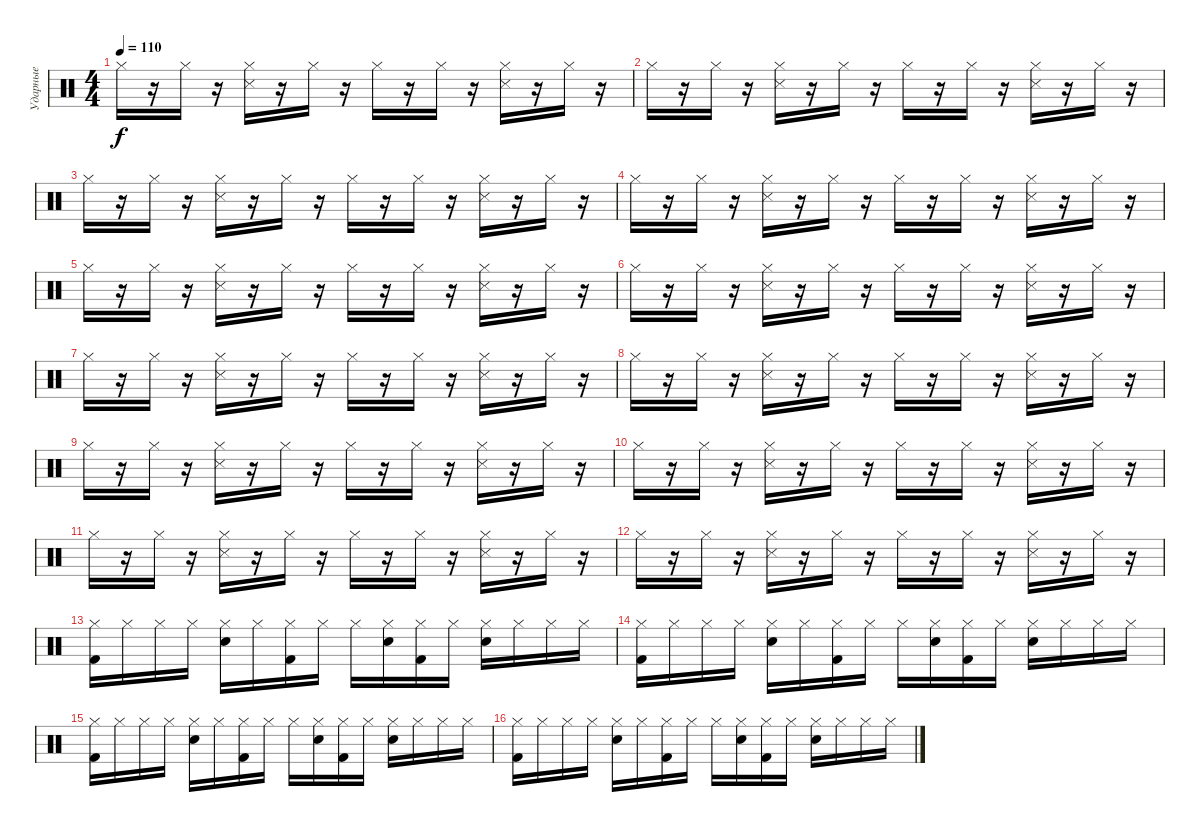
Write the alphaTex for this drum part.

\track ("Ударные" "Ударные") {instrument percussion}
\staff {score}
\articulation defaults
\ts (4 4)
\tempo 110
\clef neutral
\ks c "Hi-Hat (closed)".16{dy f}
r.16 "Hi-Hat (closed)".16 r.16 ("Hi-Hat (closed)" "Snare (side stick) 3").16 r.16 "Hi-Hat (closed)".16 r.16 "Hi-Hat (closed)".16 r.16 "Hi-Hat (closed)".16 r.16 ("Hi-Hat (closed)" "Snare (side stick) 3").16 r.16 "Hi-Hat (closed)".16 r.16 |
"Hi-Hat (closed)".16 r.16 "Hi-Hat (closed)".16 r.16 ("Hi-Hat (closed)" "Snare (side stick) 3").16 r.16 "Hi-Hat (closed)".16 r.16 "Hi-Hat (closed)".16 r.16 "Hi-Hat (closed)".16 r.16 ("Hi-Hat (closed)" "Snare (side stick) 3").16 r.16 "Hi-Hat (closed)".16 r.16 |
"Hi-Hat (closed)".16 r.16 "Hi-Hat (closed)".16 r.16 ("Hi-Hat (closed)" "Snare (side stick) 3").16 r.16 "Hi-Hat (closed)".16 r.16 "Hi-Hat (closed)".16 r.16 "Hi-Hat (closed)".16 r.16 ("Hi-Hat (closed)" "Snare (side stick) 3").16 r.16 "Hi-Hat (closed)".16 r.16 |
"Hi-Hat (closed)".16 r.16 "Hi-Hat (closed)".16 r.16 ("Hi-Hat (closed)" "Snare (side stick) 3").16 r.16 "Hi-Hat (closed)".16 r.16 "Hi-Hat (closed)".16 r.16 "Hi-Hat (closed)".16 r.16 ("Hi-Hat (closed)" "Snare (side stick) 3").16 r.16 "Hi-Hat (closed)".16 r.16 |
"Hi-Hat (closed)".16 r.16 "Hi-Hat (closed)".16 r.16 ("Hi-Hat (closed)" "Snare (side stick) 3").16 r.16 "Hi-Hat (closed)".16 r.16 "Hi-Hat (closed)".16 r.16 "Hi-Hat (closed)".16 r.16 ("Hi-Hat (closed)" "Snare (side stick) 3").16 r.16 "Hi-Hat (closed)".16 r.16 |
"Hi-Hat (closed)".16 r.16 "Hi-Hat (closed)".16 r.16 ("Hi-Hat (closed)" "Snare (side stick) 3").16 r.16 "Hi-Hat (closed)".16 r.16 "Hi-Hat (closed)".16 r.16 "Hi-Hat (closed)".16 r.16 ("Hi-Hat (closed)" "Snare (side stick) 3").16 r.16 "Hi-Hat (closed)".16 r.16 |
"Hi-Hat (closed)".16 r.16 "Hi-Hat (closed)".16 r.16 ("Hi-Hat (closed)" "Snare (side stick) 3").16 r.16 "Hi-Hat (closed)".16 r.16 "Hi-Hat (closed)".16 r.16 "Hi-Hat (closed)".16 r.16 ("Hi-Hat (closed)" "Snare (side stick) 3").16 r.16 "Hi-Hat (closed)".16 r.16 |
"Hi-Hat (closed)".16 r.16 "Hi-Hat (closed)".16 r.16 ("Hi-Hat (closed)" "Snare (side stick) 3").16 r.16 "Hi-Hat (closed)".16 r.16 "Hi-Hat (closed)".16 r.16 "Hi-Hat (closed)".16 r.16 ("Hi-Hat (closed)" "Snare (side stick) 3").16 r.16 "Hi-Hat (closed)".16 r.16 |
"Hi-Hat (closed)".16 r.16 "Hi-Hat (closed)".16 r.16 ("Hi-Hat (closed)" "Snare (side stick) 3").16 r.16 "Hi-Hat (closed)".16 r.16 "Hi-Hat (closed)".16 r.16 "Hi-Hat (closed)".16 r.16 ("Hi-Hat (closed)" "Snare (side stick) 3").16 r.16 "Hi-Hat (closed)".16 r.16 |
"Hi-Hat (closed)".16 r.16 "Hi-Hat (closed)".16 r.16 ("Hi-Hat (closed)" "Snare (side stick) 3").16 r.16 "Hi-Hat (closed)".16 r.16 "Hi-Hat (closed)".16 r.16 "Hi-Hat (closed)".16 r.16 ("Hi-Hat (closed)" "Snare (side stick) 3").16 r.16 "Hi-Hat (closed)".16 r.16 |
"Hi-Hat (closed)".16 r.16 "Hi-Hat (closed)".16 r.16 ("Hi-Hat (closed)" "Snare (side stick) 3").16 r.16 "Hi-Hat (closed)".16 r.16 "Hi-Hat (closed)".16 r.16 "Hi-Hat (closed)".16 r.16 ("Hi-Hat (closed)" "Snare (side stick) 3").16 r.16 "Hi-Hat (closed)".16 r.16 |
"Hi-Hat (closed)".16 r.16 "Hi-Hat (closed)".16 r.16 ("Hi-Hat (closed)" "Snare (side stick) 3").16 r.16 "Hi-Hat (closed)".16 r.16 "Hi-Hat (closed)".16 r.16 "Hi-Hat (closed)".16 r.16 ("Hi-Hat (closed)" "Snare (side stick) 3").16 r.16 "Hi-Hat (closed)".16 r.16 |
("Hi-Hat (closed)" "Kick (hit) 2").16 "Hi-Hat (closed)".16 "Hi-Hat (closed)".16 "Hi-Hat (closed)".16 ("Hi-Hat (closed)" "Snare (hit) 2").16 "Hi-Hat (closed)".16 ("Hi-Hat (closed)" "Kick (hit) 2").16 "Hi-Hat (closed)".16 "Hi-Hat (closed)".16 ("Hi-Hat (closed)" "Snare (hit) 2").16 ("Hi-Hat (closed)" "Kick (hit) 2").16 "Hi-Hat (closed)".16 ("Hi-Hat (closed)" "Snare (hit) 2").16 "Hi-Hat (closed)".16 "Hi-Hat (closed)".16 "Hi-Hat (closed)".16 |
("Hi-Hat (closed)" "Kick (hit) 2").16 "Hi-Hat (closed)".16 "Hi-Hat (closed)".16 "Hi-Hat (closed)".16 ("Hi-Hat (closed)" "Snare (hit) 2").16 "Hi-Hat (closed)".16 ("Hi-Hat (closed)" "Kick (hit) 2").16 "Hi-Hat (closed)".16 "Hi-Hat (closed)".16 ("Hi-Hat (closed)" "Snare (hit) 2").16 ("Hi-Hat (closed)" "Kick (hit) 2").16 "Hi-Hat (closed)".16 ("Hi-Hat (closed)" "Snare (hit) 2").16 "Hi-Hat (closed)".16 "Hi-Hat (closed)".16 "Hi-Hat (closed)".16 |
("Hi-Hat (closed)" "Kick (hit) 2").16 "Hi-Hat (closed)".16 "Hi-Hat (closed)".16 "Hi-Hat (closed)".16 ("Hi-Hat (closed)" "Snare (hit) 2").16 "Hi-Hat (closed)".16 ("Hi-Hat (closed)" "Kick (hit) 2").16 "Hi-Hat (closed)".16 "Hi-Hat (closed)".16 ("Hi-Hat (closed)" "Snare (hit) 2").16 ("Hi-Hat (closed)" "Kick (hit) 2").16 "Hi-Hat (closed)".16 ("Hi-Hat (closed)" "Snare (hit) 2").16 "Hi-Hat (closed)".16 "Hi-Hat (closed)".16 "Hi-Hat (closed)".16 |
("Hi-Hat (closed)" "Kick (hit) 2").16 "Hi-Hat (closed)".16 "Hi-Hat (closed)".16 "Hi-Hat (closed)".16 ("Hi-Hat (closed)" "Snare (hit) 2").16 "Hi-Hat (closed)".16 ("Hi-Hat (closed)" "Kick (hit) 2").16 "Hi-Hat (closed)".16 "Hi-Hat (closed)".16 ("Hi-Hat (closed)" "Snare (hit) 2").16 ("Hi-Hat (closed)" "Kick (hit) 2").16 "Hi-Hat (closed)".16 ("Hi-Hat (closed)" "Snare (hit) 2").16 "Hi-Hat (closed)".16 "Hi-Hat (closed)".16 "Hi-Hat (closed)".16
